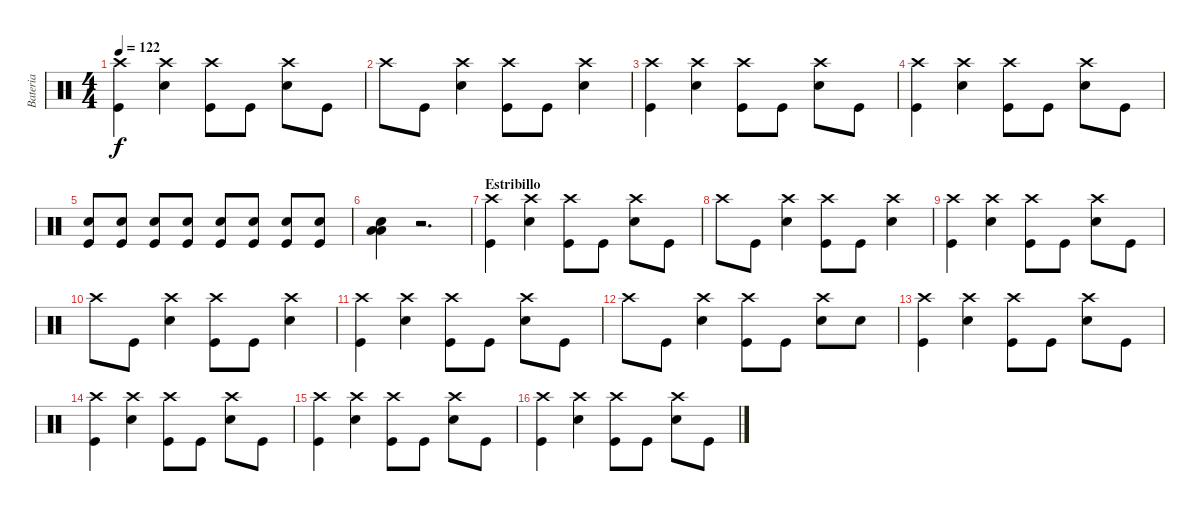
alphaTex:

\track ("Bateria" "Bateria") {instrument percussion}
\staff {score}
\articulation defaults
\ts (4 4)
\tempo 122
\clef neutral
\ks c
("Crash high (hit)" "Kick (hit)").4{dy f} ("Crash high (hit)" "Snare (hit) 2").4 ("Crash high (hit)" "Kick (hit)").8 "Kick (hit)".8 ("Crash high (hit)" "Snare (hit) 2").8 "Kick (hit)".8 |
"Crash high (hit)".8 "Kick (hit)".8 ("Crash high (hit)" "Snare (hit) 2").4 ("Crash high (hit)" "Kick (hit)").8 "Kick (hit)".8 ("Crash high (hit)" "Snare (hit) 2").4 |
("Crash high (hit)" "Kick (hit)").4 ("Crash high (hit)" "Snare (hit) 2").4 ("Crash high (hit)" "Kick (hit)").8 "Kick (hit)".8 ("Crash high (hit)" "Snare (hit) 2").8 "Kick (hit)".8 |
("Crash high (hit)" "Kick (hit)").4 ("Crash high (hit)" "Snare (hit) 2").4 ("Crash high (hit)" "Kick (hit)").8 "Kick (hit)".8 ("Crash high (hit)" "Snare (hit) 2").8 "Kick (hit)".8 |
("Snare (hit) 2" "Kick (hit)").8 ("Snare (hit) 2" "Kick (hit)").8 ("Snare (hit) 2" "Kick (hit)").8 ("Snare (hit) 2" "Kick (hit)").8 ("Snare (hit) 2" "Kick (hit)").8 ("Snare (hit) 2" "Kick (hit)").8 ("Snare (hit) 2" "Kick (hit)").8 ("Snare (hit) 2" "Kick (hit)").8 |
("Snare (hit) 2" "Low Floor Tom (hit)" "Low Floor Tom (hit)").4 r.2{d} |
\section ("" "Estribillo")
("Crash high (hit)" "Kick (hit)").4 ("Crash high (hit)" "Snare (hit) 2").4 ("Crash high (hit)" "Kick (hit)").8 "Kick (hit)".8 ("Crash high (hit)" "Snare (hit) 2").8 "Kick (hit)".8 |
"Crash high (hit)".8 "Kick (hit)".8 ("Crash high (hit)" "Snare (hit) 2").4 ("Crash high (hit)" "Kick (hit)").8 "Kick (hit)".8 ("Crash high (hit)" "Snare (hit) 2").4 |
("Crash high (hit)" "Kick (hit)").4 ("Crash high (hit)" "Snare (hit) 2").4 ("Crash high (hit)" "Kick (hit)").8 "Kick (hit)".8 ("Crash high (hit)" "Snare (hit) 2").8 "Kick (hit)".8 |
"Crash high (hit)".8 "Kick (hit)".8 ("Crash high (hit)" "Snare (hit) 2").4 ("Crash high (hit)" "Kick (hit)").8 "Kick (hit)".8 ("Crash high (hit)" "Snare (hit) 2").4 |
("Crash high (hit)" "Kick (hit)").4 ("Crash high (hit)" "Snare (hit) 2").4 ("Crash high (hit)" "Kick (hit)").8 "Kick (hit)".8 ("Crash high (hit)" "Snare (hit) 2").8 "Kick (hit)".8 |
"Crash high (hit)".8 "Kick (hit)".8 ("Crash high (hit)" "Snare (hit) 2").4 ("Crash high (hit)" "Kick (hit)").8 "Kick (hit)".8 ("Crash high (hit)" "Snare (hit) 2").8 "Snare (hit) 2".8 |
("Crash high (hit)" "Kick (hit)").4 ("Crash high (hit)" "Snare (hit) 2").4 ("Crash high (hit)" "Kick (hit)").8 "Kick (hit)".8 ("Crash high (hit)" "Snare (hit) 2").8 "Kick (hit)".8 |
("Crash high (hit)" "Kick (hit)").4 ("Crash high (hit)" "Snare (hit) 2").4 ("Crash high (hit)" "Kick (hit)").8 "Kick (hit)".8 ("Crash high (hit)" "Snare (hit) 2").8 "Kick (hit)".8 |
("Crash high (hit)" "Kick (hit)").4 ("Crash high (hit)" "Snare (hit) 2").4 ("Crash high (hit)" "Kick (hit)").8 "Kick (hit)".8 ("Crash high (hit)" "Snare (hit) 2").8 "Kick (hit)".8 |
("Crash high (hit)" "Kick (hit)").4 ("Crash high (hit)" "Snare (hit) 2").4 ("Crash high (hit)" "Kick (hit)").8 "Kick (hit)".8 ("Crash high (hit)" "Snare (hit) 2").8 "Kick (hit)".8
